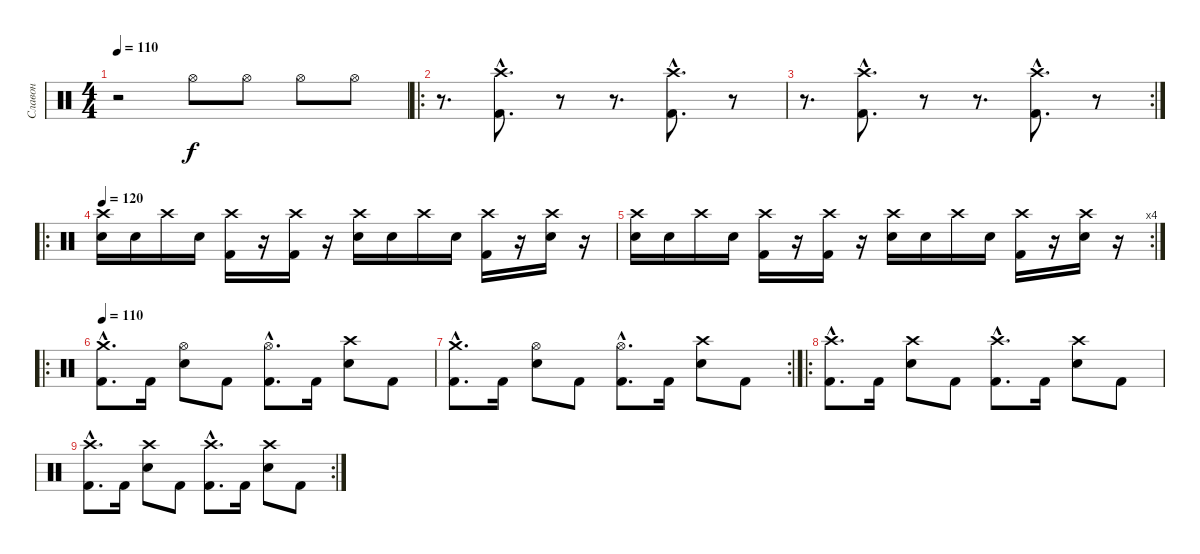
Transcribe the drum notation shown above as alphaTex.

\track ("Славон" "Славон") {instrument percussion}
\staff {score}
\articulation defaults
\ts (4 4)
\tempo 110
\clef neutral
\ks c
r.2{dy f} "Hi-Hat (open)".8 "Hi-Hat (open)".8 "Hi-Hat (open)".8 "Hi-Hat (open)".8 |
\ro
r.8{d} ("Crash high (hit)"{hac} "Kick (hit) 2"{hac}).8{d} r.8 r.8{d} ("Crash high (hit)"{hac} "Kick (hit) 2"{hac}).8{d} r.8 |
\rc 2
r.8{d} ("Crash high (hit)"{hac} "Kick (hit) 2"{hac}).8{d} r.8 r.8{d} ("Crash high (hit)"{hac} "Kick (hit) 2"{hac}).8{d} r.8 |
\ro
\tempo 120
("Crash high (hit)" "Snare (hit) 2").16 "Snare (hit) 2".16 "Crash high (hit)".16 "Snare (hit) 2".16 ("Crash high (hit)" "Kick (hit) 2").16 r.16 ("Crash high (hit)" "Kick (hit) 2").16 r.16 ("Crash high (hit)" "Snare (hit) 2").16 "Snare (hit) 2".16 "Crash high (hit)".16 "Snare (hit) 2".16 ("Crash high (hit)" "Kick (hit) 2").16 r.16 ("Crash high (hit)" "Snare (hit) 2").16 r.16 |
\rc 4
("Crash high (hit)" "Snare (hit) 2").16 "Snare (hit) 2".16 "Crash high (hit)".16 "Snare (hit) 2".16 ("Crash high (hit)" "Kick (hit) 2").16 r.16 ("Crash high (hit)" "Kick (hit) 2").16 r.16 ("Crash high (hit)" "Snare (hit) 2").16 "Snare (hit) 2".16 "Crash high (hit)".16 "Snare (hit) 2".16 ("Crash high (hit)" "Kick (hit) 2").16 r.16 ("Crash high (hit)" "Snare (hit) 2").16 r.16 |
\ro
\tempo 110
("Crash medium (hit)"{hac} "Kick (hit) 2"{hac}).8{d} "Kick (hit) 2".16 ("Hi-Hat (open)" "Snare (hit) 2").8 "Kick (hit) 2".8 ("Hi-Hat (open)"{hac} "Kick (hit) 2"{hac}).8{d} "Kick (hit) 2".16 ("Crash high (hit)" "Snare (hit) 2").8 "Kick (hit) 2".8 |
\rc 2
("Crash medium (hit)"{hac} "Kick (hit) 2"{hac}).8{d} "Kick (hit) 2".16 ("Hi-Hat (open)" "Snare (hit) 2").8 "Kick (hit) 2".8 ("Hi-Hat (open)"{hac} "Kick (hit) 2"{hac}).8{d} "Kick (hit) 2".16 ("Crash high (hit)" "Snare (hit) 2").8 "Kick (hit) 2".8 |
\ro
("Crash high (hit)"{hac} "Kick (hit) 2"{hac}).8{d} "Kick (hit) 2".16 ("Crash high (hit)" "Snare (hit) 2").8 "Kick (hit) 2".8 ("Crash high (hit)"{hac} "Kick (hit) 2"{hac}).8{d} "Kick (hit) 2".16 ("Crash high (hit)" "Snare (hit) 2").8 "Kick (hit) 2".8 |
\rc 2
("Crash high (hit)"{hac} "Kick (hit) 2"{hac}).8{d} "Kick (hit) 2".16 ("Crash high (hit)" "Snare (hit) 2").8 "Kick (hit) 2".8 ("Crash high (hit)"{hac} "Kick (hit) 2"{hac}).8{d} "Kick (hit) 2".16 ("Crash high (hit)" "Snare (hit) 2").8 "Kick (hit) 2".8
